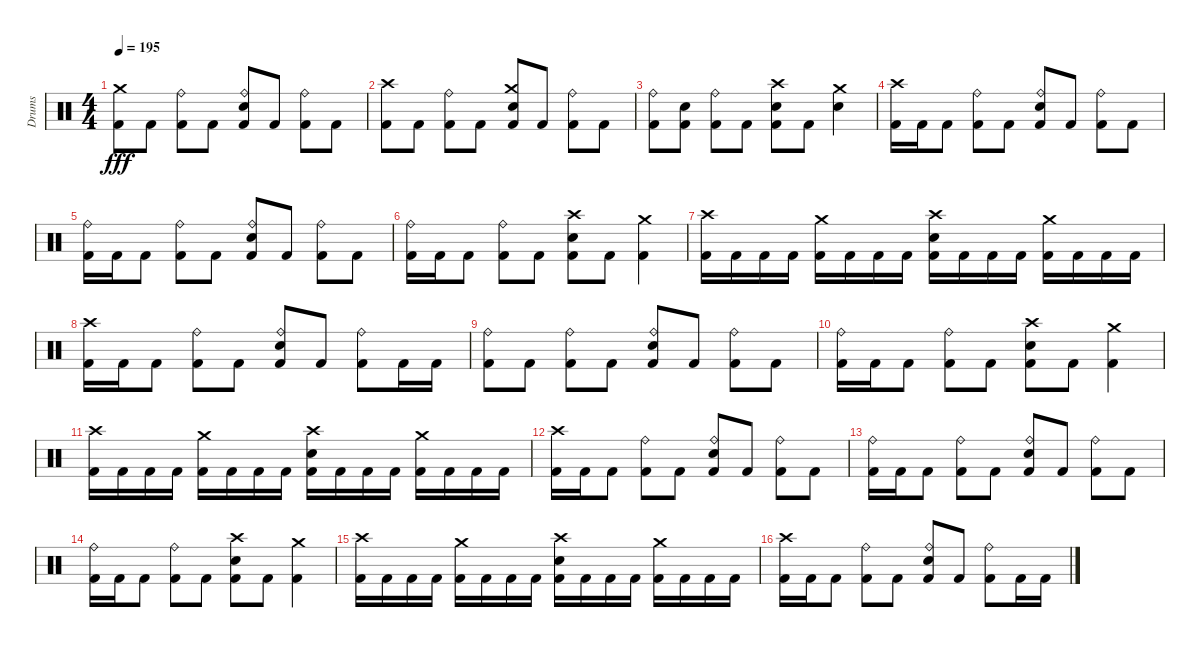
\track ("Drums" "Drums") {instrument percussion}
\staff {score}
\articulation defaults
\ts (4 4)
\tempo 195
\clef neutral
\ks c
("Kick (hit) 2" "Crash medium (hit)").8{dy fff} "Kick (hit) 2".8 ("Kick (hit) 2" "Ride (bell)").8 "Kick (hit) 2".8 ("Metronome (bell)" "Kick (hit) 2" "Ride (bell)").8 "Kick (hit) 2".8 ("Kick (hit) 2" "Ride (bell)").8 "Kick (hit) 2".8 |
("Kick (hit) 2" "Crash high (hit)").8 "Kick (hit) 2".8 ("Kick (hit) 2" "Ride (bell)").8 "Kick (hit) 2".8 ("Metronome (bell)" "Kick (hit) 2" "Crash medium (hit)").8 "Kick (hit) 2".8 ("Kick (hit) 2" "Ride (bell)").8 "Kick (hit) 2".8 |
("Kick (hit) 2" "Ride (bell)").8 ("Metronome (bell)" "Kick (hit) 2").8 ("Kick (hit) 2" "Ride (bell)").8 "Kick (hit) 2".8 ("Metronome (bell)" "Kick (hit) 2" "Crash high (hit)").8 "Kick (hit) 2".8 ("Metronome (bell)" "Crash medium (hit)").4 |
("Kick (hit) 2" "Crash high (hit)").16 "Kick (hit) 2".16 "Kick (hit) 2".8 ("Kick (hit) 2" "Ride (bell)").8 "Kick (hit) 2".8 ("Metronome (bell)" "Kick (hit) 2" "Ride (bell)").8 "Kick (hit) 2".8 ("Kick (hit) 2" "Ride (bell)").8 "Kick (hit) 2".8 |
("Kick (hit) 2" "Ride (bell)").16 "Kick (hit) 2".16 "Kick (hit) 2".8 ("Kick (hit) 2" "Ride (bell)").8 "Kick (hit) 2".8 ("Metronome (bell)" "Kick (hit) 2" "Ride (bell)").8 "Kick (hit) 2".8 ("Kick (hit) 2" "Ride (bell)").8 "Kick (hit) 2".8 |
("Kick (hit) 2" "Ride (bell)").16 "Kick (hit) 2".16 "Kick (hit) 2".8 ("Kick (hit) 2" "Ride (bell)").8 "Kick (hit) 2".8 ("Metronome (bell)" "Kick (hit) 2" "Crash high (hit)").8 "Kick (hit) 2".8 ("Kick (hit) 2" "Crash medium (hit)").4 |
("Kick (hit) 2" "Crash high (hit)").16 "Kick (hit) 2".16 "Kick (hit) 2".16 "Kick (hit) 2".16 ("Kick (hit) 2" "Crash medium (hit)").16 "Kick (hit) 2".16 "Kick (hit) 2".16 "Kick (hit) 2".16 ("Metronome (bell)" "Kick (hit) 2" "Crash high (hit)").16 "Kick (hit) 2".16 "Kick (hit) 2".16 "Kick (hit) 2".16 ("Kick (hit) 2" "Crash medium (hit)").16 "Kick (hit) 2".16 "Kick (hit) 2".16 "Kick (hit) 2".16 |
("Kick (hit) 2" "Crash high (hit)").16 "Kick (hit) 2".16 "Kick (hit) 2".8 ("Kick (hit) 2" "Ride (bell)").8 "Kick (hit) 2".8 ("Metronome (bell)" "Kick (hit) 2" "Ride (bell)").8 "Kick (hit) 2".8 ("Kick (hit) 2" "Ride (bell)").8 "Kick (hit) 2".16 "Kick (hit) 2".16 |
("Kick (hit) 2" "Ride (bell)").8 "Kick (hit) 2".8 ("Kick (hit) 2" "Ride (bell)").8 "Kick (hit) 2".8 ("Metronome (bell)" "Kick (hit) 2" "Ride (bell)").8 "Kick (hit) 2".8 ("Kick (hit) 2" "Ride (bell)").8 "Kick (hit) 2".8 |
("Kick (hit) 2" "Ride (bell)").16 "Kick (hit) 2".16 "Kick (hit) 2".8 ("Kick (hit) 2" "Ride (bell)").8 "Kick (hit) 2".8 ("Metronome (bell)" "Kick (hit) 2" "Crash high (hit)").8 "Kick (hit) 2".8 ("Kick (hit) 2" "Crash medium (hit)").4 |
("Kick (hit) 2" "Crash high (hit)").16 "Kick (hit) 2".16 "Kick (hit) 2".16 "Kick (hit) 2".16 ("Kick (hit) 2" "Crash medium (hit)").16 "Kick (hit) 2".16 "Kick (hit) 2".16 "Kick (hit) 2".16 ("Metronome (bell)" "Kick (hit) 2" "Crash high (hit)").16 "Kick (hit) 2".16 "Kick (hit) 2".16 "Kick (hit) 2".16 ("Kick (hit) 2" "Crash medium (hit)").16 "Kick (hit) 2".16 "Kick (hit) 2".16 "Kick (hit) 2".16 |
("Kick (hit) 2" "Crash high (hit)").16 "Kick (hit) 2".16 "Kick (hit) 2".8 ("Kick (hit) 2" "Ride (bell)").8 "Kick (hit) 2".8 ("Metronome (bell)" "Kick (hit) 2" "Ride (bell)").8 "Kick (hit) 2".8 ("Kick (hit) 2" "Ride (bell)").8 "Kick (hit) 2".8 |
("Kick (hit) 2" "Ride (bell)").16 "Kick (hit) 2".16 "Kick (hit) 2".8 ("Kick (hit) 2" "Ride (bell)").8 "Kick (hit) 2".8 ("Metronome (bell)" "Kick (hit) 2" "Ride (bell)").8 "Kick (hit) 2".8 ("Kick (hit) 2" "Ride (bell)").8 "Kick (hit) 2".8 |
("Kick (hit) 2" "Ride (bell)").16 "Kick (hit) 2".16 "Kick (hit) 2".8 ("Kick (hit) 2" "Ride (bell)").8 "Kick (hit) 2".8 ("Metronome (bell)" "Kick (hit) 2" "Crash high (hit)").8 "Kick (hit) 2".8 ("Kick (hit) 2" "Crash medium (hit)").4 |
("Kick (hit) 2" "Crash high (hit)").16 "Kick (hit) 2".16 "Kick (hit) 2".16 "Kick (hit) 2".16 ("Kick (hit) 2" "Crash medium (hit)").16 "Kick (hit) 2".16 "Kick (hit) 2".16 "Kick (hit) 2".16 ("Metronome (bell)" "Kick (hit) 2" "Crash high (hit)").16 "Kick (hit) 2".16 "Kick (hit) 2".16 "Kick (hit) 2".16 ("Kick (hit) 2" "Crash medium (hit)").16 "Kick (hit) 2".16 "Kick (hit) 2".16 "Kick (hit) 2".16 |
("Kick (hit) 2" "Crash high (hit)").16 "Kick (hit) 2".16 "Kick (hit) 2".8 ("Kick (hit) 2" "Ride (bell)").8 "Kick (hit) 2".8 ("Metronome (bell)" "Kick (hit) 2" "Ride (bell)").8 "Kick (hit) 2".8 ("Kick (hit) 2" "Ride (bell)").8 "Kick (hit) 2".16 "Kick (hit) 2".16
